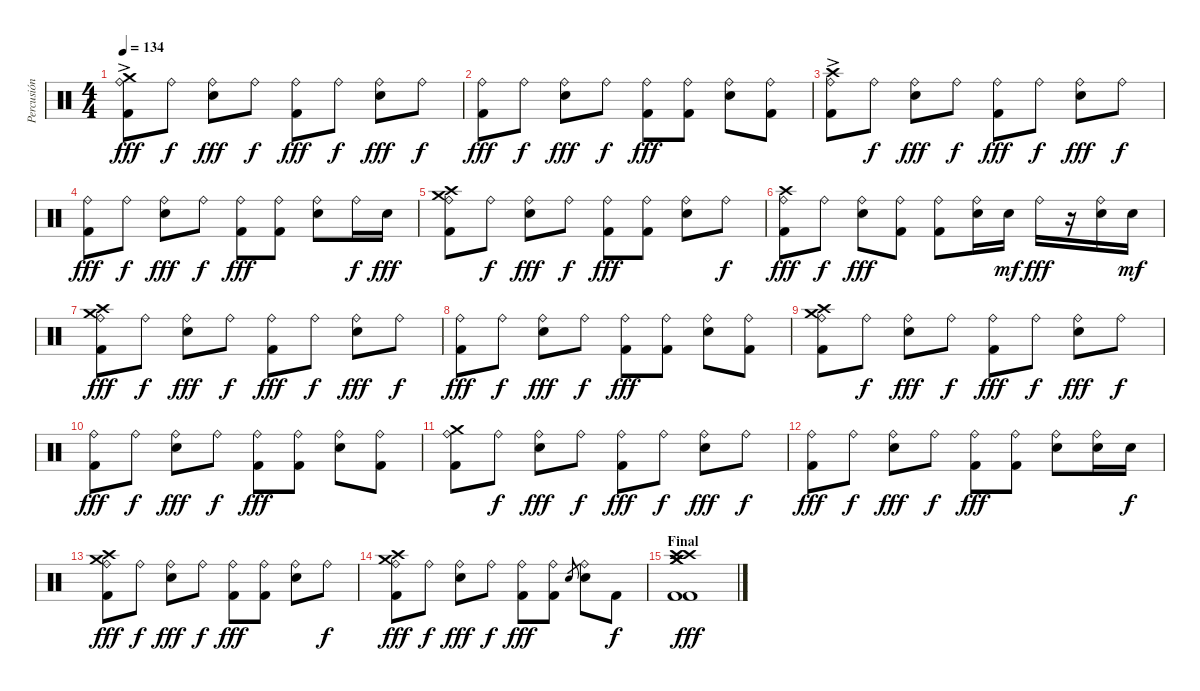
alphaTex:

\track ("Percusión" "Percusión") {instrument percussion}
\staff {score}
\articulation defaults
\ts (4 4)
\tempo 134
\clef neutral
\ks c
("Crash medium (hit)"{ac} "Ride (bell)" "Kick (hit) 2").8{dy fff} "Ride (bell)".8{dy f} ("Ride (bell)" "Electric Snare (hit)").8{dy fff} "Ride (bell)".8{dy f} ("Ride (bell)" "Kick (hit) 2").8{dy fff} "Ride (bell)".8{dy f} ("Ride (bell)" "Electric Snare (hit)").8{dy fff} "Ride (bell)".8{dy f} |
("Ride (bell)" "Kick (hit) 2").8{dy fff} "Ride (bell)".8{dy f} ("Ride (bell)" "Electric Snare (hit)").8{dy fff} "Ride (bell)".8{dy f} ("Ride (bell)" "Kick (hit) 2").8{dy fff} ("Ride (bell)" "Kick (hit) 2").8 ("Ride (bell)" "Electric Snare (hit)").8 ("Ride (bell)" "Kick (hit) 2").8 |
("Crash high (hit)"{ac} "Ride (bell)" "Kick (hit) 2").8 "Ride (bell)".8{dy f} ("Ride (bell)" "Electric Snare (hit)").8{dy fff} "Ride (bell)".8{dy f} ("Ride (bell)" "Kick (hit) 2").8{dy fff} "Ride (bell)".8{dy f} ("Ride (bell)" "Electric Snare (hit)").8{dy fff} "Ride (bell)".8{dy f} |
("Ride (bell)" "Kick (hit) 2").8{dy fff} "Ride (bell)".8{dy f} ("Ride (bell)" "Electric Snare (hit)").8{dy fff} "Ride (bell)".8{dy f} ("Ride (bell)" "Kick (hit) 2").8{dy fff} ("Ride (bell)" "Kick (hit) 2").8 ("Ride (bell)" "Electric Snare (hit)").8 "Ride (bell)".16{dy f} "Electric Snare (hit)".16{dy fff} |
("Crash high (hit)" "Crash medium (hit)" "Ride (bell)" "Kick (hit) 2").8 "Ride (bell)".8{dy f} ("Ride (bell)" "Electric Snare (hit)").8{dy fff} "Ride (bell)".8{dy f} ("Ride (bell)" "Kick (hit) 2").8{dy fff} ("Ride (bell)" "Kick (hit) 2").8 ("Ride (bell)" "Electric Snare (hit)").8 "Ride (bell)".8{dy f} |
("Crash high (hit)" "Ride (bell)" "Kick (hit) 2").8{dy fff} "Ride (bell)".8{dy f} ("Ride (bell)" "Electric Snare (hit)").8{dy fff} ("Ride (bell)" "Kick (hit) 2").8 ("Ride (bell)" "Kick (hit) 2").8 ("Ride (bell)" "Electric Snare (hit)").16 "Electric Snare (hit)".16{dy mf} "Ride (bell)".16{dy fff} r.16 ("Ride (bell)" "Electric Snare (hit)").16 "Electric Snare (hit)".16{dy mf} |
("Crash high (hit)" "Crash medium (hit)" "Ride (bell)" "Kick (hit) 2").8{dy fff} "Ride (bell)".8{dy f} ("Ride (bell)" "Electric Snare (hit)").8{dy fff} "Ride (bell)".8{dy f} ("Ride (bell)" "Kick (hit) 2").8{dy fff} "Ride (bell)".8{dy f} ("Ride (bell)" "Electric Snare (hit)").8{dy fff} "Ride (bell)".8{dy f} |
("Ride (bell)" "Kick (hit) 2").8{dy fff} "Ride (bell)".8{dy f} ("Ride (bell)" "Electric Snare (hit)").8{dy fff} "Ride (bell)".8{dy f} ("Ride (bell)" "Kick (hit) 2").8{dy fff} ("Ride (bell)" "Kick (hit) 2").8 ("Ride (bell)" "Electric Snare (hit)").8 ("Ride (bell)" "Kick (hit) 2").8 |
("Crash high (hit)" "Crash medium (hit)" "Ride (bell)" "Kick (hit) 2").8 "Ride (bell)".8{dy f} ("Ride (bell)" "Electric Snare (hit)").8{dy fff} "Ride (bell)".8{dy f} ("Ride (bell)" "Kick (hit) 2").8{dy fff} "Ride (bell)".8{dy f} ("Ride (bell)" "Electric Snare (hit)").8{dy fff} "Ride (bell)".8{dy f} |
("Ride (bell)" "Kick (hit) 2").8{dy fff} "Ride (bell)".8{dy f} ("Ride (bell)" "Electric Snare (hit)").8{dy fff} "Ride (bell)".8{dy f} ("Ride (bell)" "Kick (hit) 2").8{dy fff} ("Ride (bell)" "Kick (hit) 2").8 ("Ride (bell)" "Electric Snare (hit)").8 ("Ride (bell)" "Kick (hit) 2").8 |
("Crash medium (hit)" "Ride (bell)" "Kick (hit) 2").8 "Ride (bell)".8{dy f} ("Ride (bell)" "Electric Snare (hit)").8{dy fff} "Ride (bell)".8{dy f} ("Ride (bell)" "Kick (hit) 2").8{dy fff} "Ride (bell)".8{dy f} ("Ride (bell)" "Electric Snare (hit)").8{dy fff} "Ride (bell)".8{dy f} |
("Ride (bell)" "Kick (hit) 2").8{dy fff} "Ride (bell)".8{dy f} ("Ride (bell)" "Electric Snare (hit)").8{dy fff} "Ride (bell)".8{dy f} ("Ride (bell)" "Kick (hit) 2").8{dy fff} ("Ride (bell)" "Kick (hit) 2").8 ("Ride (bell)" "Electric Snare (hit)").8 ("Ride (bell)" "Electric Snare (hit)").16 "Electric Snare (hit)".16{dy f} |
("Crash high (hit)" "Crash medium (hit)" "Ride (bell)" "Kick (hit) 2").8{dy fff} "Ride (bell)".8{dy f} ("Ride (bell)" "Electric Snare (hit)").8{dy fff} "Ride (bell)".8{dy f} ("Ride (bell)" "Kick (hit) 2").8{dy fff} ("Ride (bell)" "Kick (hit) 2").8 ("Ride (bell)" "Electric Snare (hit)").8 "Ride (bell)".8{dy f} |
("Crash high (hit)" "Crash medium (hit)" "Ride (bell)" "Kick (hit) 2").8{dy fff} "Ride (bell)".8{dy f} ("Ride (bell)" "Electric Snare (hit)").8{dy fff} "Ride (bell)".8{dy f} ("Ride (bell)" "Kick (hit) 2").8{dy fff} ("Ride (bell)" "Kick (hit) 2").8 "Electric Snare (hit)".8{gr} ("Ride (bell)" "Electric Snare (hit)").8 "Kick (hit) 2".8{dy f} |
\section ("" "Final")
("Crash high (hit)" "Crash medium (hit)" "Crash high (hit)" "Crash medium (hit)" "Kick (hit) 2" "Kick (hit) 2").1{dy fff}
